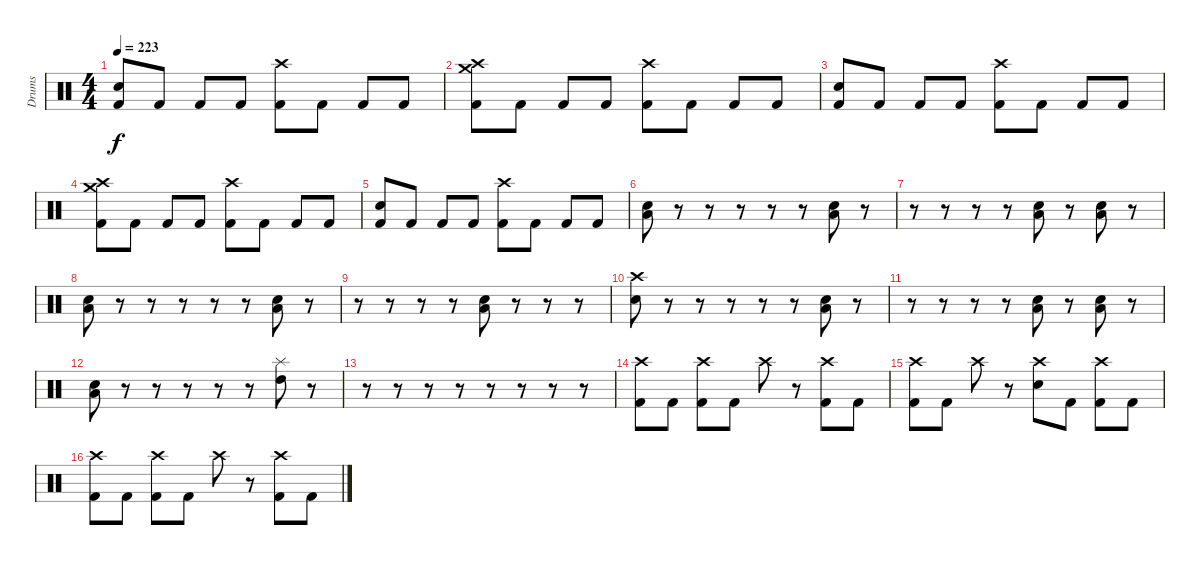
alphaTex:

\track ("Drums" "Drums") {instrument percussion bank 177}
\staff {score}
\articulation defaults
\ts (4 4)
\tempo 223
\clef neutral
\ks c
("Electric Snare (hit)" "Kick (hit) 2").8{dy f} "Kick (hit) 2".8 "Kick (hit) 2".8 "Kick (hit) 2".8 ("Crash high (hit)" "Kick (hit) 2").8 "Kick (hit) 2".8 "Kick (hit) 2".8 "Kick (hit) 2".8 |
("Crash high (hit)" "Crash medium (hit)" "Kick (hit) 2").8 "Kick (hit) 2".8 "Kick (hit) 2".8 "Kick (hit) 2".8 ("Crash high (hit)" "Kick (hit) 2").8 "Kick (hit) 2".8 "Kick (hit) 2".8 "Kick (hit) 2".8 |
("Electric Snare (hit)" "Kick (hit) 2").8 "Kick (hit) 2".8 "Kick (hit) 2".8 "Kick (hit) 2".8 ("Crash high (hit)" "Kick (hit) 2").8 "Kick (hit) 2".8 "Kick (hit) 2".8 "Kick (hit) 2".8 |
("Crash high (hit)" "Crash medium (hit)" "Kick (hit) 2").8 "Kick (hit) 2".8 "Kick (hit) 2".8 "Kick (hit) 2".8 ("Crash high (hit)" "Kick (hit) 2").8 "Kick (hit) 2".8 "Kick (hit) 2".8 "Kick (hit) 2".8 |
("Electric Snare (hit)" "Kick (hit) 2").8 "Kick (hit) 2".8 "Kick (hit) 2".8 "Kick (hit) 2".8 ("Crash high (hit)" "Kick (hit) 2").8 "Kick (hit) 2".8 "Kick (hit) 2".8 "Kick (hit) 2".8 |
("Electric Snare (hit)" "Low Tom (hit)").8 r.8 r.8 r.8 r.8 r.8 ("Electric Snare (hit)" "Low Tom (hit)").8 r.8 |
r.8 r.8 r.8 r.8 ("Electric Snare (hit)" "Low Tom (hit)").8 r.8 ("Electric Snare (hit)" "Low Tom (hit)").8 r.8 |
("Electric Snare (hit)" "Low Tom (hit)").8 r.8 r.8 r.8 r.8 r.8 ("Electric Snare (hit)" "Low Tom (hit)").8 r.8 |
r.8 r.8 r.8 r.8 ("Electric Snare (hit)" "Low Tom (hit)").8 r.8 r.8 r.8 |
("Crash high (hit)" "Electric Snare (hit)").8 r.8 r.8 r.8 r.8 r.8 ("Electric Snare (hit)" "Low Tom (hit)").8 r.8 |
r.8 r.8 r.8 r.8 ("Electric Snare (hit)" "Low Tom (hit)").8 r.8 ("Electric Snare (hit)" "Low Tom (hit)").8 r.8 |
("Electric Snare (hit)" "Low Tom (hit)").8 r.8 r.8 r.8 r.8 r.8 ("Splash (hit)" "High Tom (hit)").8 r.8 |
r.8 r.8 r.8 r.8 r.8 r.8 r.8 r.8 |
("Crash high (hit)" "Kick (hit) 2").8 "Kick (hit) 2".8 ("Crash high (hit)" "Kick (hit) 2").8 "Kick (hit) 2".8 "Crash high (hit)".8 r.8 ("Crash high (hit)" "Kick (hit) 2").8 "Kick (hit) 2".8 |
("Crash high (hit)" "Kick (hit) 2").8 "Kick (hit) 2".8 "Crash high (hit)".8 r.8 ("Crash high (hit)" "Electric Snare (hit)").8 "Kick (hit) 2".8 ("Crash high (hit)" "Kick (hit) 2").8 "Kick (hit) 2".8 |
("Crash high (hit)" "Kick (hit) 2").8 "Kick (hit) 2".8 ("Crash high (hit)" "Kick (hit) 2").8 "Kick (hit) 2".8 "Crash high (hit)".8 r.8 ("Crash high (hit)" "Kick (hit) 2").8 "Kick (hit) 2".8
